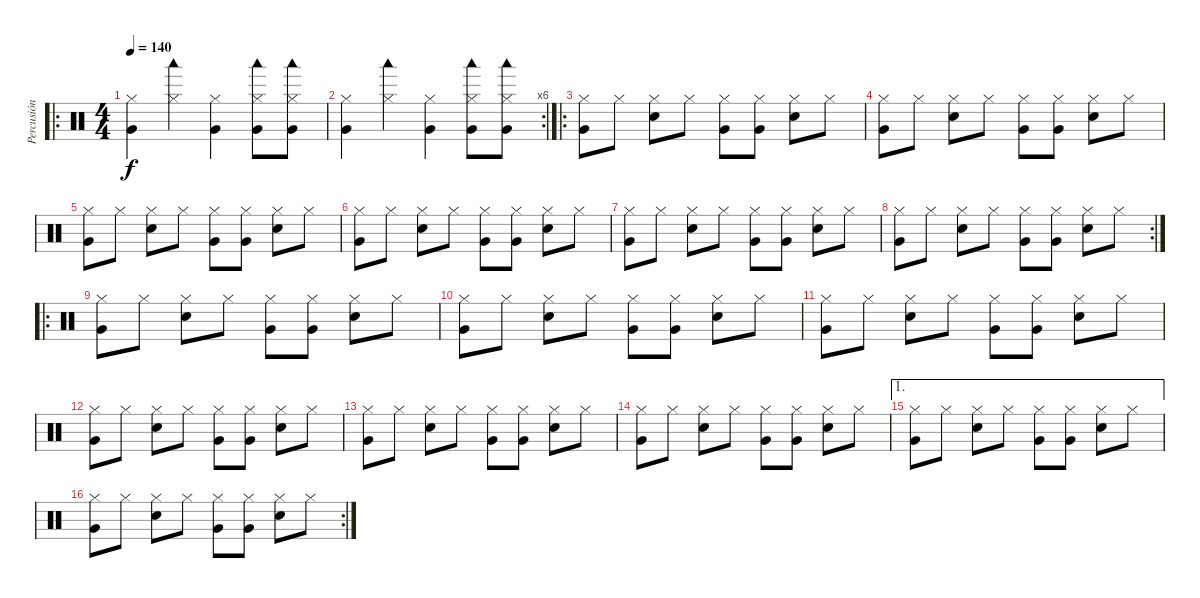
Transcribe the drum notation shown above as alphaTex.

\track ("Percusión" "Percusión") {instrument percussion}
\staff {score}
\articulation defaults
\ro
\ts (4 4)
\tempo 140
\clef neutral
\ks c
("Hi-Hat (closed)" "Very Low Tom (hit)").4{dy f} ("Hi-Hat (closed)" "Woodblock low (hit)").4 ("Hi-Hat (closed)" "Very Low Tom (hit)").4 ("Hi-Hat (closed)" "Woodblock low (hit)" "Very Low Tom (hit)").8 ("Hi-Hat (closed)" "Woodblock low (hit)" "Very Low Tom (hit)").8 |
\rc 6
("Hi-Hat (closed)" "Very Low Tom (hit)").4 ("Hi-Hat (closed)" "Woodblock low (hit)").4 ("Hi-Hat (closed)" "Very Low Tom (hit)").4 ("Hi-Hat (closed)" "Woodblock low (hit)" "Very Low Tom (hit)").8 ("Hi-Hat (closed)" "Woodblock low (hit)" "Very Low Tom (hit)").8 |
\ro
("Hi-Hat (closed)" "Very Low Tom (hit)").8 "Hi-Hat (closed)".8 ("Hi-Hat (closed)" "Snare (hit) 2").8 "Hi-Hat (closed)".8 ("Hi-Hat (closed)" "Very Low Tom (hit)").8 ("Hi-Hat (closed)" "Very Low Tom (hit)").8 ("Hi-Hat (closed)" "Snare (hit) 2").8 "Hi-Hat (closed)".8 |
("Hi-Hat (closed)" "Very Low Tom (hit)").8 "Hi-Hat (closed)".8 ("Hi-Hat (closed)" "Snare (hit) 2").8 "Hi-Hat (closed)".8 ("Hi-Hat (closed)" "Very Low Tom (hit)").8 ("Hi-Hat (closed)" "Very Low Tom (hit)").8 ("Hi-Hat (closed)" "Snare (hit) 2").8 "Hi-Hat (closed)".8 |
("Hi-Hat (closed)" "Very Low Tom (hit)").8 "Hi-Hat (closed)".8 ("Hi-Hat (closed)" "Snare (hit) 2").8 "Hi-Hat (closed)".8 ("Hi-Hat (closed)" "Very Low Tom (hit)").8 ("Hi-Hat (closed)" "Very Low Tom (hit)").8 ("Hi-Hat (closed)" "Snare (hit) 2").8 "Hi-Hat (closed)".8 |
("Hi-Hat (closed)" "Very Low Tom (hit)").8 "Hi-Hat (closed)".8 ("Hi-Hat (closed)" "Snare (hit) 2").8 "Hi-Hat (closed)".8 ("Hi-Hat (closed)" "Very Low Tom (hit)").8 ("Hi-Hat (closed)" "Very Low Tom (hit)").8 ("Hi-Hat (closed)" "Snare (hit) 2").8 "Hi-Hat (closed)".8 |
("Hi-Hat (closed)" "Very Low Tom (hit)").8 "Hi-Hat (closed)".8 ("Hi-Hat (closed)" "Snare (hit) 2").8 "Hi-Hat (closed)".8 ("Hi-Hat (closed)" "Very Low Tom (hit)").8 ("Hi-Hat (closed)" "Very Low Tom (hit)").8 ("Hi-Hat (closed)" "Snare (hit) 2").8 "Hi-Hat (closed)".8 |
\rc 2
("Hi-Hat (closed)" "Very Low Tom (hit)").8 "Hi-Hat (closed)".8 ("Hi-Hat (closed)" "Snare (hit) 2").8 "Hi-Hat (closed)".8 ("Hi-Hat (closed)" "Very Low Tom (hit)").8 ("Hi-Hat (closed)" "Very Low Tom (hit)").8 ("Hi-Hat (closed)" "Snare (hit) 2").8 "Hi-Hat (closed)".8 |
\ro
("Hi-Hat (closed)" "Very Low Tom (hit)").8 "Hi-Hat (closed)".8 ("Hi-Hat (closed)" "Snare (hit) 2").8 "Hi-Hat (closed)".8 ("Hi-Hat (closed)" "Very Low Tom (hit)").8 ("Hi-Hat (closed)" "Very Low Tom (hit)").8 ("Hi-Hat (closed)" "Snare (hit) 2").8 "Hi-Hat (closed)".8 |
("Hi-Hat (closed)" "Very Low Tom (hit)").8 "Hi-Hat (closed)".8 ("Hi-Hat (closed)" "Snare (hit) 2").8 "Hi-Hat (closed)".8 ("Hi-Hat (closed)" "Very Low Tom (hit)").8 ("Hi-Hat (closed)" "Very Low Tom (hit)").8 ("Hi-Hat (closed)" "Snare (hit) 2").8 "Hi-Hat (closed)".8 |
("Hi-Hat (closed)" "Very Low Tom (hit)").8 "Hi-Hat (closed)".8 ("Hi-Hat (closed)" "Snare (hit) 2").8 "Hi-Hat (closed)".8 ("Hi-Hat (closed)" "Very Low Tom (hit)").8 ("Hi-Hat (closed)" "Very Low Tom (hit)").8 ("Hi-Hat (closed)" "Snare (hit) 2").8 "Hi-Hat (closed)".8 |
("Hi-Hat (closed)" "Very Low Tom (hit)").8 "Hi-Hat (closed)".8 ("Hi-Hat (closed)" "Snare (hit) 2").8 "Hi-Hat (closed)".8 ("Hi-Hat (closed)" "Very Low Tom (hit)").8 ("Hi-Hat (closed)" "Very Low Tom (hit)").8 ("Hi-Hat (closed)" "Snare (hit) 2").8 "Hi-Hat (closed)".8 |
("Hi-Hat (closed)" "Very Low Tom (hit)").8 "Hi-Hat (closed)".8 ("Hi-Hat (closed)" "Snare (hit) 2").8 "Hi-Hat (closed)".8 ("Hi-Hat (closed)" "Very Low Tom (hit)").8 ("Hi-Hat (closed)" "Very Low Tom (hit)").8 ("Hi-Hat (closed)" "Snare (hit) 2").8 "Hi-Hat (closed)".8 |
("Hi-Hat (closed)" "Very Low Tom (hit)").8 "Hi-Hat (closed)".8 ("Hi-Hat (closed)" "Snare (hit) 2").8 "Hi-Hat (closed)".8 ("Hi-Hat (closed)" "Very Low Tom (hit)").8 ("Hi-Hat (closed)" "Very Low Tom (hit)").8 ("Hi-Hat (closed)" "Snare (hit) 2").8 "Hi-Hat (closed)".8 |
\ae 1
("Hi-Hat (closed)" "Very Low Tom (hit)").8 "Hi-Hat (closed)".8 ("Hi-Hat (closed)" "Snare (hit) 2").8 "Hi-Hat (closed)".8 ("Hi-Hat (closed)" "Very Low Tom (hit)").8 ("Hi-Hat (closed)" "Very Low Tom (hit)").8 ("Hi-Hat (closed)" "Snare (hit) 2").8 "Hi-Hat (closed)".8 |
\rc 2
("Hi-Hat (closed)" "Very Low Tom (hit)").8 "Hi-Hat (closed)".8 ("Hi-Hat (closed)" "Snare (hit) 2").8 "Hi-Hat (closed)".8 ("Hi-Hat (closed)" "Very Low Tom (hit)").8 ("Hi-Hat (closed)" "Very Low Tom (hit)").8 ("Hi-Hat (closed)" "Snare (hit) 2").8 "Hi-Hat (closed)".8
